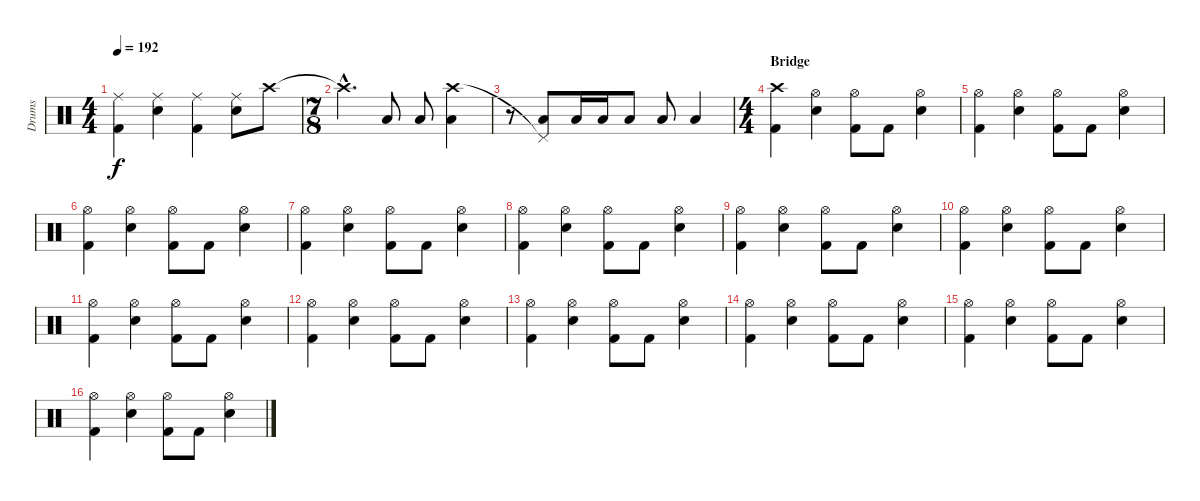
\track ("Drums" "Drums") {instrument percussion}
\staff {score}
\articulation defaults
\ts (4 4)
\tempo 192
\clef neutral
\ks c
("Ride (middle)" "Kick (hit) 2").4{dy f} ("Ride (middle)" "Electric Snare (hit)").4 ("Ride (middle)" "Kick (hit) 2").4 ("Ride (middle)" "Electric Snare (hit)").8 "Crash high (hit)".8 |
\ts (7 8)
"Crash high (hit)"{hac t}.4{d} "Low Tom (hit)".8 "Low Tom (hit)".8 ("Crash high (hit)" "Low Tom (hit)").4 |
r.8 ("Pedal Hi-Hat (hit)"{t} "Low Tom (hit)").8 "Low Tom (hit)".16 "Low Tom (hit)".16 "Low Tom (hit)".8 "Low Tom (hit)".8 "Low Tom (hit)".4 |
\ts (4 4)
\section ("" "Bridge")
("Crash high (hit)" "Kick (hit) 2").4 ("Hi-Hat (open)" "Electric Snare (hit)").4 ("Hi-Hat (open)" "Kick (hit) 2").8 "Kick (hit) 2".8 ("Hi-Hat (open)" "Electric Snare (hit)").4 |
("Hi-Hat (open)" "Kick (hit) 2").4 ("Hi-Hat (open)" "Electric Snare (hit)").4 ("Hi-Hat (open)" "Kick (hit) 2").8 "Kick (hit) 2".8 ("Hi-Hat (open)" "Electric Snare (hit)").4 |
("Hi-Hat (open)" "Kick (hit) 2").4 ("Hi-Hat (open)" "Electric Snare (hit)").4 ("Hi-Hat (open)" "Kick (hit) 2").8 "Kick (hit) 2".8 ("Hi-Hat (open)" "Electric Snare (hit)").4 |
("Hi-Hat (open)" "Kick (hit) 2").4 ("Hi-Hat (open)" "Electric Snare (hit)").4 ("Hi-Hat (open)" "Kick (hit) 2").8 "Kick (hit) 2".8 ("Hi-Hat (open)" "Electric Snare (hit)").4 |
("Hi-Hat (open)" "Kick (hit) 2").4 ("Hi-Hat (open)" "Electric Snare (hit)").4 ("Hi-Hat (open)" "Kick (hit) 2").8 "Kick (hit) 2".8 ("Hi-Hat (open)" "Electric Snare (hit)").4 |
("Hi-Hat (open)" "Kick (hit) 2").4 ("Hi-Hat (open)" "Electric Snare (hit)").4 ("Hi-Hat (open)" "Kick (hit) 2").8 "Kick (hit) 2".8 ("Hi-Hat (open)" "Electric Snare (hit)").4 |
("Hi-Hat (open)" "Kick (hit) 2").4 ("Hi-Hat (open)" "Electric Snare (hit)").4 ("Hi-Hat (open)" "Kick (hit) 2").8 "Kick (hit) 2".8 ("Hi-Hat (open)" "Electric Snare (hit)").4 |
("Hi-Hat (open)" "Kick (hit) 2").4 ("Hi-Hat (open)" "Electric Snare (hit)").4 ("Hi-Hat (open)" "Kick (hit) 2").8 "Kick (hit) 2".8 ("Hi-Hat (open)" "Electric Snare (hit)").4 |
("Hi-Hat (open)" "Kick (hit) 2").4 ("Hi-Hat (open)" "Electric Snare (hit)").4 ("Hi-Hat (open)" "Kick (hit) 2").8 "Kick (hit) 2".8 ("Hi-Hat (open)" "Electric Snare (hit)").4 |
("Hi-Hat (open)" "Kick (hit) 2").4 ("Hi-Hat (open)" "Electric Snare (hit)").4 ("Hi-Hat (open)" "Kick (hit) 2").8 "Kick (hit) 2".8 ("Hi-Hat (open)" "Electric Snare (hit)").4 |
("Hi-Hat (open)" "Kick (hit) 2").4 ("Hi-Hat (open)" "Electric Snare (hit)").4 ("Hi-Hat (open)" "Kick (hit) 2").8 "Kick (hit) 2".8 ("Hi-Hat (open)" "Electric Snare (hit)").4 |
("Hi-Hat (open)" "Kick (hit) 2").4 ("Hi-Hat (open)" "Electric Snare (hit)").4 ("Hi-Hat (open)" "Kick (hit) 2").8 "Kick (hit) 2".8 ("Hi-Hat (open)" "Electric Snare (hit)").4 |
("Hi-Hat (open)" "Kick (hit) 2").4 ("Hi-Hat (open)" "Electric Snare (hit)").4 ("Hi-Hat (open)" "Kick (hit) 2").8 "Kick (hit) 2".8 ("Hi-Hat (open)" "Electric Snare (hit)").4
